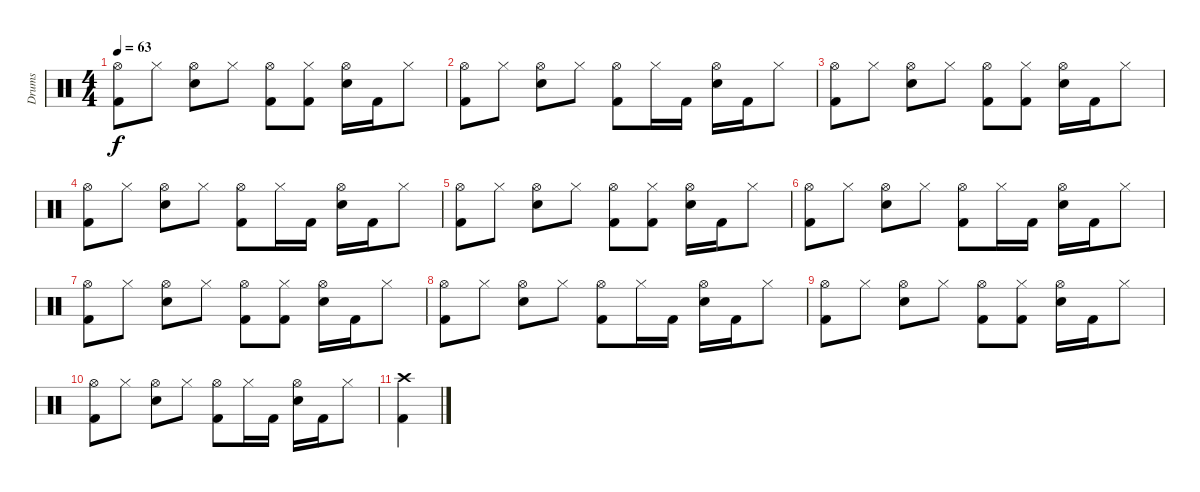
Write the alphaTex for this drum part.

\track ("Drums" "Drums") {instrument percussion}
\staff {score}
\articulation defaults
\ts (4 4)
\tempo 63
\clef neutral
\ks c
("Hi-Hat (open)" "Kick (hit) 2").8{dy f} "Hi-Hat (closed)".8 ("Hi-Hat (open)" "Snare (hit) 2").8 "Hi-Hat (closed)".8 ("Hi-Hat (open)" "Kick (hit) 2").8 ("Hi-Hat (closed)" "Kick (hit) 2").8 ("Hi-Hat (open)" "Snare (hit) 2").16 "Kick (hit) 2".16 "Hi-Hat (closed)".8 |
("Hi-Hat (open)" "Kick (hit) 2").8 "Hi-Hat (closed)".8 ("Hi-Hat (open)" "Snare (hit) 2").8 "Hi-Hat (closed)".8 ("Hi-Hat (open)" "Kick (hit) 2").8 "Hi-Hat (closed)".16 "Kick (hit) 2".16 ("Hi-Hat (open)" "Snare (hit) 2").16 "Kick (hit) 2".16 "Hi-Hat (closed)".8 |
("Hi-Hat (open)" "Kick (hit) 2").8 "Hi-Hat (closed)".8 ("Hi-Hat (open)" "Snare (hit) 2").8 "Hi-Hat (closed)".8 ("Hi-Hat (open)" "Kick (hit) 2").8 ("Hi-Hat (closed)" "Kick (hit) 2").8 ("Hi-Hat (open)" "Snare (hit) 2").16 "Kick (hit) 2".16 "Hi-Hat (closed)".8 |
("Hi-Hat (open)" "Kick (hit) 2").8 "Hi-Hat (closed)".8 ("Hi-Hat (open)" "Snare (hit) 2").8 "Hi-Hat (closed)".8 ("Hi-Hat (open)" "Kick (hit) 2").8 "Hi-Hat (closed)".16 "Kick (hit) 2".16 ("Hi-Hat (open)" "Snare (hit) 2").16 "Kick (hit) 2".16 "Hi-Hat (closed)".8 |
("Hi-Hat (open)" "Kick (hit) 2").8 "Hi-Hat (closed)".8 ("Hi-Hat (open)" "Snare (hit) 2").8 "Hi-Hat (closed)".8 ("Hi-Hat (open)" "Kick (hit) 2").8 ("Hi-Hat (closed)" "Kick (hit) 2").8 ("Hi-Hat (open)" "Snare (hit) 2").16 "Kick (hit) 2".16 "Hi-Hat (closed)".8 |
("Hi-Hat (open)" "Kick (hit) 2").8 "Hi-Hat (closed)".8 ("Hi-Hat (open)" "Snare (hit) 2").8 "Hi-Hat (closed)".8 ("Hi-Hat (open)" "Kick (hit) 2").8 "Hi-Hat (closed)".16 "Kick (hit) 2".16 ("Hi-Hat (open)" "Snare (hit) 2").16 "Kick (hit) 2".16 "Hi-Hat (closed)".8 |
("Hi-Hat (open)" "Kick (hit) 2").8 "Hi-Hat (closed)".8 ("Hi-Hat (open)" "Snare (hit) 2").8 "Hi-Hat (closed)".8 ("Hi-Hat (open)" "Kick (hit) 2").8 ("Hi-Hat (closed)" "Kick (hit) 2").8 ("Hi-Hat (open)" "Snare (hit) 2").16 "Kick (hit) 2".16 "Hi-Hat (closed)".8 |
("Hi-Hat (open)" "Kick (hit) 2").8 "Hi-Hat (closed)".8 ("Hi-Hat (open)" "Snare (hit) 2").8 "Hi-Hat (closed)".8 ("Hi-Hat (open)" "Kick (hit) 2").8 "Hi-Hat (closed)".16 "Kick (hit) 2".16 ("Hi-Hat (open)" "Snare (hit) 2").16 "Kick (hit) 2".16 "Hi-Hat (closed)".8 |
("Hi-Hat (open)" "Kick (hit) 2").8 "Hi-Hat (closed)".8 ("Hi-Hat (open)" "Snare (hit) 2").8 "Hi-Hat (closed)".8 ("Hi-Hat (open)" "Kick (hit) 2").8 ("Hi-Hat (closed)" "Kick (hit) 2").8 ("Hi-Hat (open)" "Snare (hit) 2").16 "Kick (hit) 2".16 "Hi-Hat (closed)".8 |
("Hi-Hat (open)" "Kick (hit) 2").8 "Hi-Hat (closed)".8 ("Hi-Hat (open)" "Snare (hit) 2").8 "Hi-Hat (closed)".8 ("Hi-Hat (open)" "Kick (hit) 2").8 "Hi-Hat (closed)".16 "Kick (hit) 2".16 ("Hi-Hat (open)" "Snare (hit) 2").16 "Kick (hit) 2".16 "Hi-Hat (closed)".8 |
("Crash high (hit)" "Kick (hit) 2").4
